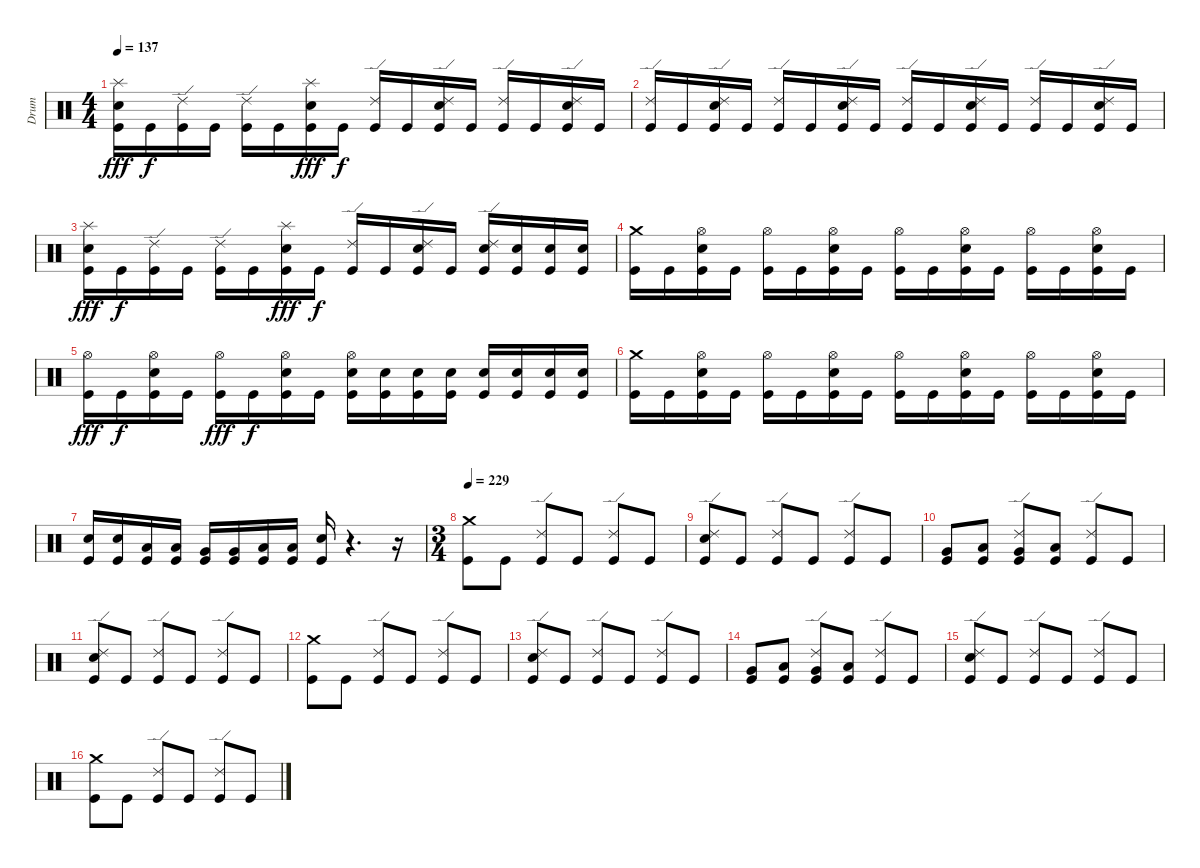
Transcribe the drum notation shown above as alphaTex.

\track ("Drum" "Drum") {instrument percussion}
\staff {score}
\articulation defaults
\ts (4 4)
\tempo 137
\clef neutral
\ks c
("Splash (hit)" "Snare (hit) 2" "Kick (hit)").16{dy fff} "Kick (hit)".16{dy f} ("Ride (edge) 2" "Kick (hit)").16 "Kick (hit)".16 ("Ride (edge) 2" "Kick (hit)").16 "Kick (hit)".16 ("Splash (hit)" "Snare (hit) 2" "Kick (hit)").16{dy fff} "Kick (hit)".16{dy f} ("Ride (edge) 2" "Kick (hit)").16 "Kick (hit)".16 ("Ride (edge) 2" "Snare (hit) 2" "Kick (hit)").16 "Kick (hit)".16 ("Ride (edge) 2" "Kick (hit)").16 "Kick (hit)".16 ("Ride (edge) 2" "Snare (hit) 2" "Kick (hit)").16 "Kick (hit)".16 |
("Ride (edge) 2" "Kick (hit)").16 "Kick (hit)".16 ("Ride (edge) 2" "Snare (hit) 2" "Kick (hit)").16 "Kick (hit)".16 ("Ride (edge) 2" "Kick (hit)").16 "Kick (hit)".16 ("Ride (edge) 2" "Snare (hit) 2" "Kick (hit)").16 "Kick (hit)".16 ("Ride (edge) 2" "Kick (hit)").16 "Kick (hit)".16 ("Ride (edge) 2" "Snare (hit) 2" "Kick (hit)").16 "Kick (hit)".16 ("Ride (edge) 2" "Kick (hit)").16 "Kick (hit)".16 ("Ride (edge) 2" "Snare (hit) 2" "Kick (hit)").16 "Kick (hit)".16 |
("Splash (hit)" "Snare (hit) 2" "Kick (hit)").16{dy fff} "Kick (hit)".16{dy f} ("Ride (edge) 2" "Kick (hit)").16 "Kick (hit)".16 ("Ride (edge) 2" "Kick (hit)").16 "Kick (hit)".16 ("Splash (hit)" "Snare (hit) 2" "Kick (hit)").16{dy fff} "Kick (hit)".16{dy f} ("Ride (edge) 2" "Kick (hit)").16 "Kick (hit)".16 ("Ride (edge) 2" "Snare (hit) 2" "Kick (hit)").16 "Kick (hit)".16 ("Ride (edge) 2" "Snare (hit) 2" "Kick (hit)").16 ("Snare (hit) 2" "Kick (hit)").16 ("Snare (hit) 2" "Kick (hit)").16 ("Snare (hit) 2" "Kick (hit)").16 |
("Crash medium (hit)" "Kick (hit)").16 "Kick (hit)".16 ("Hi-Hat (open)" "Snare (hit) 2" "Kick (hit)").16 "Kick (hit)".16 ("Hi-Hat (open)" "Kick (hit)").16 "Kick (hit)".16 ("Hi-Hat (open)" "Snare (hit) 2" "Kick (hit)").16 "Kick (hit)".16 ("Hi-Hat (open)" "Kick (hit)").16 "Kick (hit)".16 ("Hi-Hat (open)" "Snare (hit) 2" "Kick (hit)").16 "Kick (hit)".16 ("Hi-Hat (open)" "Kick (hit)").16 "Kick (hit)".16 ("Hi-Hat (open)" "Snare (hit) 2" "Kick (hit)").16 "Kick (hit)".16 |
("Hi-Hat (open)" "Kick (hit)").16{dy fff} "Kick (hit)".16{dy f} ("Hi-Hat (open)" "Snare (hit) 2" "Kick (hit)").16 "Kick (hit)".16 ("Hi-Hat (open)" "Kick (hit)").16{dy fff} "Kick (hit)".16{dy f} ("Hi-Hat (open)" "Snare (hit) 2" "Kick (hit)").16 "Kick (hit)".16 ("Hi-Hat (open)" "Snare (hit) 2" "Kick (hit)").16 ("Snare (hit) 2" "Kick (hit)").16 ("Snare (hit) 2" "Kick (hit)").16 ("Snare (hit) 2" "Kick (hit)").16 ("Snare (hit) 2" "Kick (hit)").16 ("Snare (hit) 2" "Kick (hit)").16 ("Snare (hit) 2" "Kick (hit)").16 ("Snare (hit) 2" "Kick (hit)").16 |
("Crash medium (hit)" "Kick (hit)").16 "Kick (hit)".16 ("Hi-Hat (open)" "Snare (hit) 2" "Kick (hit)").16 "Kick (hit)".16 ("Hi-Hat (open)" "Kick (hit)").16 "Kick (hit)".16 ("Hi-Hat (open)" "Snare (hit) 2" "Kick (hit)").16 "Kick (hit)".16 ("Hi-Hat (open)" "Kick (hit)").16 "Kick (hit)".16 ("Hi-Hat (open)" "Snare (hit) 2" "Kick (hit)").16 "Kick (hit)".16 ("Hi-Hat (open)" "Kick (hit)").16 "Kick (hit)".16 ("Hi-Hat (open)" "Snare (hit) 2" "Kick (hit)").16 "Kick (hit)".16 |
("Snare (hit) 2" "Kick (hit)").16 ("Snare (hit) 2" "Kick (hit)").16 ("Low Tom (hit)" "Kick (hit)").16 ("Low Tom (hit)" "Kick (hit)").16 ("Very Low Tom (hit)" "Kick (hit)").16 ("Very Low Tom (hit)" "Kick (hit)").16 ("Low Floor Tom (hit)" "Kick (hit)").16 ("Low Floor Tom (hit)" "Kick (hit)").16 ("Snare (hit) 2" "Kick (hit)").16 r.4{d} r.16 |
\ts (3 4)
\tempo 229
("Crash medium (hit)" "Kick (hit)").8 "Kick (hit)".8 ("Ride (edge) 2" "Kick (hit)").8 "Kick (hit)".8 ("Ride (edge) 2" "Kick (hit)").8 "Kick (hit)".8 |
("Ride (edge) 2" "Snare (hit) 2" "Kick (hit)").8 "Kick (hit)".8 ("Ride (edge) 2" "Kick (hit)").8 "Kick (hit)".8 ("Ride (edge) 2" "Kick (hit)").8 "Kick (hit)".8 |
("Very Low Tom (hit)" "Kick (hit)").8 ("Low Floor Tom (hit)" "Kick (hit)").8 ("Ride (edge) 2" "Very Low Tom (hit)" "Kick (hit)").8 ("Low Floor Tom (hit)" "Kick (hit)").8 ("Ride (edge) 2" "Kick (hit)").8 "Kick (hit)".8 |
("Ride (edge) 2" "Snare (hit) 2" "Kick (hit)").8 "Kick (hit)".8 ("Ride (edge) 2" "Kick (hit)").8 "Kick (hit)".8 ("Ride (edge) 2" "Kick (hit)").8 "Kick (hit)".8 |
("Crash medium (hit)" "Kick (hit)").8 "Kick (hit)".8 ("Ride (edge) 2" "Kick (hit)").8 "Kick (hit)".8 ("Ride (edge) 2" "Kick (hit)").8 "Kick (hit)".8 |
("Ride (edge) 2" "Snare (hit) 2" "Kick (hit)").8 "Kick (hit)".8 ("Ride (edge) 2" "Kick (hit)").8 "Kick (hit)".8 ("Ride (edge) 2" "Kick (hit)").8 "Kick (hit)".8 |
("Very Low Tom (hit)" "Kick (hit)").8 ("Low Floor Tom (hit)" "Kick (hit)").8 ("Ride (edge) 2" "Very Low Tom (hit)" "Kick (hit)").8 ("Low Floor Tom (hit)" "Kick (hit)").8 ("Ride (edge) 2" "Kick (hit)").8 "Kick (hit)".8 |
("Ride (edge) 2" "Snare (hit) 2" "Kick (hit)").8 "Kick (hit)".8 ("Ride (edge) 2" "Kick (hit)").8 "Kick (hit)".8 ("Ride (edge) 2" "Kick (hit)").8 "Kick (hit)".8 |
("Crash medium (hit)" "Kick (hit)").8 "Kick (hit)".8 ("Ride (edge) 2" "Kick (hit)").8 "Kick (hit)".8 ("Ride (edge) 2" "Kick (hit)").8 "Kick (hit)".8
